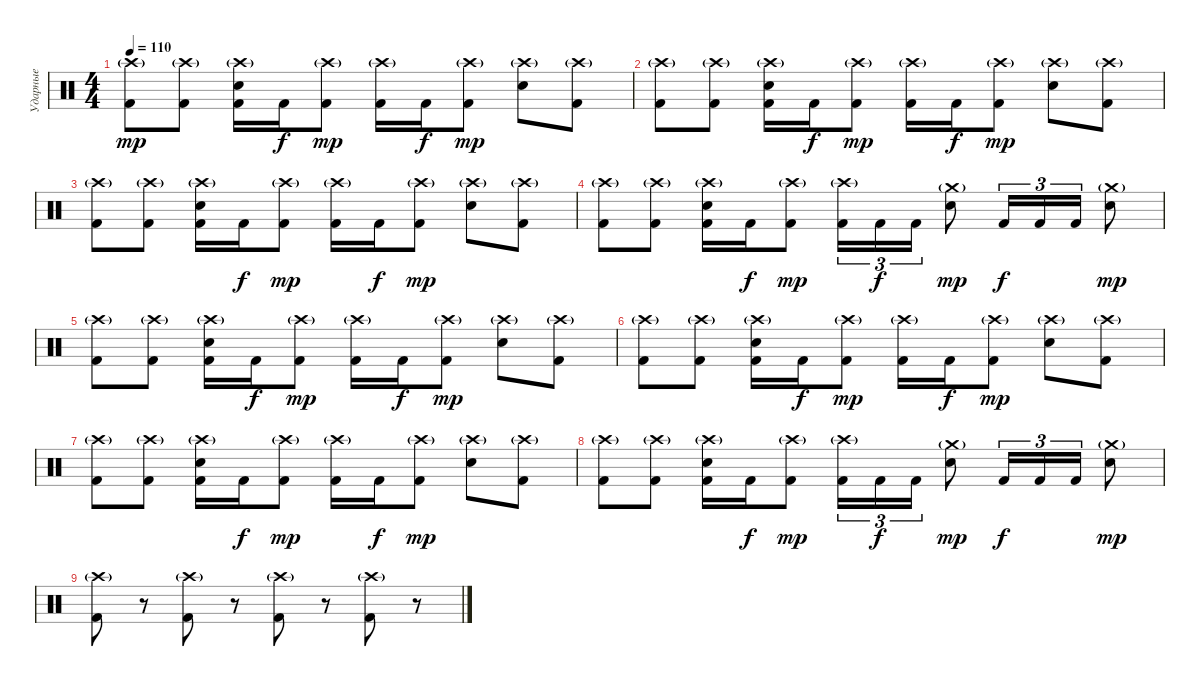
\track ("Ударные" "Ударные") {instrument percussion}
\staff {score}
\articulation defaults
\ts (4 4)
\tempo 110
\clef neutral
\ks c
("Crash high (hit)"{g} "Kick (hit) 2").8{dy mp} ("Crash high (hit)"{g} "Kick (hit) 2").8 ("Crash high (hit)"{g} "Electric Snare (hit)" "Kick (hit) 2").16 "Kick (hit) 2".16{dy f} ("Crash high (hit)"{g} "Kick (hit) 2").8{dy mp} ("Crash high (hit)"{g} "Kick (hit) 2").16 "Kick (hit) 2".16{dy f} ("Crash high (hit)"{g} "Kick (hit) 2").8{dy mp} ("Crash high (hit)"{g} "Electric Snare (hit)").8 ("Crash high (hit)"{g} "Kick (hit) 2").8 |
("Crash high (hit)"{g} "Kick (hit) 2").8 ("Crash high (hit)"{g} "Kick (hit) 2").8 ("Crash high (hit)"{g} "Electric Snare (hit)" "Kick (hit) 2").16 "Kick (hit) 2".16{dy f} ("Crash high (hit)"{g} "Kick (hit) 2").8{dy mp} ("Crash high (hit)"{g} "Kick (hit) 2").16 "Kick (hit) 2".16{dy f} ("Crash high (hit)"{g} "Kick (hit) 2").8{dy mp} ("Crash high (hit)"{g} "Electric Snare (hit)").8 ("Crash high (hit)"{g} "Kick (hit) 2").8 |
("Crash high (hit)"{g} "Kick (hit) 2").8 ("Crash high (hit)"{g} "Kick (hit) 2").8 ("Crash high (hit)"{g} "Electric Snare (hit)" "Kick (hit) 2").16 "Kick (hit) 2".16{dy f} ("Crash high (hit)"{g} "Kick (hit) 2").8{dy mp} ("Crash high (hit)"{g} "Kick (hit) 2").16 "Kick (hit) 2".16{dy f} ("Crash high (hit)"{g} "Kick (hit) 2").8{dy mp} ("Crash high (hit)"{g} "Electric Snare (hit)").8 ("Crash high (hit)"{g} "Kick (hit) 2").8 |
("Crash high (hit)"{g} "Kick (hit) 2").8 ("Crash high (hit)"{g} "Kick (hit) 2").8 ("Crash high (hit)"{g} "Electric Snare (hit)" "Kick (hit) 2").16 "Kick (hit) 2".16{dy f} ("Crash high (hit)"{g} "Kick (hit) 2").8{dy mp} ("Crash high (hit)"{g} "Kick (hit) 2").16{tu (3 2)} "Kick (hit) 2".16{tu (3 2) dy f} "Kick (hit) 2".16{tu (3 2)} ("Crash medium (hit)"{g} "Electric Snare (hit)").8{dy mp} "Kick (hit) 2".16{tu (3 2) dy f} "Kick (hit) 2".16{tu (3 2)} "Kick (hit) 2".16{tu (3 2)} ("Crash medium (hit)"{g} "Electric Snare (hit)").8{dy mp} |
("Crash high (hit)"{g} "Kick (hit) 2").8 ("Crash high (hit)"{g} "Kick (hit) 2").8 ("Crash high (hit)"{g} "Electric Snare (hit)" "Kick (hit) 2").16 "Kick (hit) 2".16{dy f} ("Crash high (hit)"{g} "Kick (hit) 2").8{dy mp} ("Crash high (hit)"{g} "Kick (hit) 2").16 "Kick (hit) 2".16{dy f} ("Crash high (hit)"{g} "Kick (hit) 2").8{dy mp} ("Crash high (hit)"{g} "Electric Snare (hit)").8 ("Crash high (hit)"{g} "Kick (hit) 2").8 |
("Crash high (hit)"{g} "Kick (hit) 2").8 ("Crash high (hit)"{g} "Kick (hit) 2").8 ("Crash high (hit)"{g} "Electric Snare (hit)" "Kick (hit) 2").16 "Kick (hit) 2".16{dy f} ("Crash high (hit)"{g} "Kick (hit) 2").8{dy mp} ("Crash high (hit)"{g} "Kick (hit) 2").16 "Kick (hit) 2".16{dy f} ("Crash high (hit)"{g} "Kick (hit) 2").8{dy mp} ("Crash high (hit)"{g} "Electric Snare (hit)").8 ("Crash high (hit)"{g} "Kick (hit) 2").8 |
("Crash high (hit)"{g} "Kick (hit) 2").8 ("Crash high (hit)"{g} "Kick (hit) 2").8 ("Crash high (hit)"{g} "Electric Snare (hit)" "Kick (hit) 2").16 "Kick (hit) 2".16{dy f} ("Crash high (hit)"{g} "Kick (hit) 2").8{dy mp} ("Crash high (hit)"{g} "Kick (hit) 2").16 "Kick (hit) 2".16{dy f} ("Crash high (hit)"{g} "Kick (hit) 2").8{dy mp} ("Crash high (hit)"{g} "Electric Snare (hit)").8 ("Crash high (hit)"{g} "Kick (hit) 2").8 |
("Crash high (hit)"{g} "Kick (hit) 2").8 ("Crash high (hit)"{g} "Kick (hit) 2").8 ("Crash high (hit)"{g} "Electric Snare (hit)" "Kick (hit) 2").16 "Kick (hit) 2".16{dy f} ("Crash high (hit)"{g} "Kick (hit) 2").8{dy mp} ("Crash high (hit)"{g} "Kick (hit) 2").16{tu (3 2)} "Kick (hit) 2".16{tu (3 2) dy f} "Kick (hit) 2".16{tu (3 2)} ("Crash medium (hit)"{g} "Electric Snare (hit)").8{dy mp} "Kick (hit) 2".16{tu (3 2) dy f} "Kick (hit) 2".16{tu (3 2)} "Kick (hit) 2".16{tu (3 2)} ("Crash medium (hit)"{g} "Electric Snare (hit)").8{dy mp} |
("Crash high (hit)"{g} "Kick (hit) 2").8 r.8{volume 0} ("Crash high (hit)"{g} "Kick (hit) 2").8{volume 16} r.8{volume 0} ("Crash high (hit)"{g} "Kick (hit) 2").8{volume 16} r.8{volume 0} ("Crash high (hit)"{g} "Kick (hit) 2").8{volume 16} r.8{volume 0}
